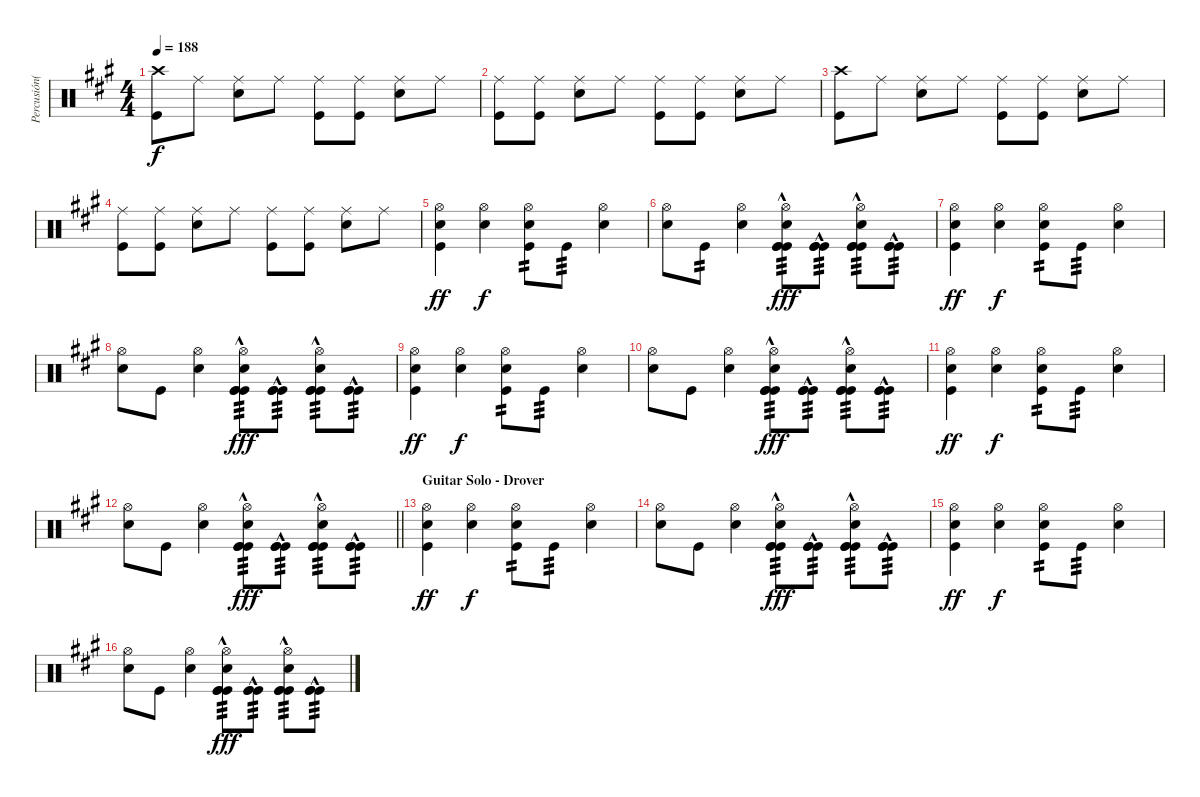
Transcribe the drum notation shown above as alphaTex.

\track ("Percusión(S.Drover)" "Percusión(") {instrument percussion}
\staff {score}
\articulation defaults
\ts (4 4)
\tempo 188
\clef neutral
\ks a
("Crash high (hit)" "Kick (hit)").8{dy f} "Ride (middle)".8 ("Ride (middle)" "Snare (hit) 2").8 "Ride (middle)".8 ("Ride (middle)" "Kick (hit)").8 ("Ride (middle)" "Kick (hit)").8 ("Ride (middle)" "Snare (hit) 2").8 "Ride (middle)".8 |
("Ride (middle)" "Kick (hit)").8 ("Ride (middle)" "Kick (hit)").8 ("Ride (middle)" "Snare (hit) 2").8 "Ride (middle)".8 ("Ride (middle)" "Kick (hit)").8 ("Ride (middle)" "Kick (hit)").8 ("Ride (middle)" "Snare (hit) 2").8 "Ride (middle)".8 |
("Crash high (hit)" "Kick (hit)").8 "Ride (middle)".8 ("Ride (middle)" "Snare (hit) 2").8 "Ride (middle)".8 ("Ride (middle)" "Kick (hit)").8 ("Ride (middle)" "Kick (hit)").8 ("Ride (middle)" "Snare (hit) 2").8 "Ride (middle)".8 |
("Ride (middle)" "Kick (hit)").8 ("Ride (middle)" "Kick (hit)").8 ("Ride (middle)" "Snare (hit) 2").8 "Ride (middle)".8 ("Ride (middle)" "Kick (hit)").8 ("Ride (middle)" "Kick (hit)").8 ("Ride (middle)" "Snare (hit) 2").8 "Ride (middle)".8 |
("Hi-Hat (open)" "Snare (hit) 2" "Kick (hit)").4{dy ff} ("Hi-Hat (open)" "Snare (hit) 2").4{dy f} ("Hi-Hat (open)" "Snare (hit) 2" "Kick (hit)").8{tp 2} "Kick (hit)".8{tp 3} ("Hi-Hat (open)" "Snare (hit) 2").4 |
("Hi-Hat (open)" "Snare (hit) 2").8 "Kick (hit)".8{tp 2} ("Hi-Hat (open)" "Snare (hit) 2").4 ("Hi-Hat (open)" "Snare (hit) 2" "Kick (hit)"{hac} "Kick (hit)" "Kick (hit)").8{tp 3 dy fff} ("Kick (hit)"{hac} "Kick (hit)" "Kick (hit)").8{tp 3} ("Hi-Hat (open)" "Snare (hit) 2" "Kick (hit)"{hac} "Kick (hit)" "Kick (hit)").8{tp 3} ("Kick (hit)"{hac} "Kick (hit)" "Kick (hit)").8{tp 3} |
("Hi-Hat (open)" "Snare (hit) 2" "Kick (hit)").4{dy ff} ("Hi-Hat (open)" "Snare (hit) 2").4{dy f} ("Hi-Hat (open)" "Snare (hit) 2" "Kick (hit)").8{tp 2} "Kick (hit)".8{tp 3} ("Hi-Hat (open)" "Snare (hit) 2").4 |
("Hi-Hat (open)" "Snare (hit) 2").8 "Kick (hit)".8 ("Hi-Hat (open)" "Snare (hit) 2").4 ("Hi-Hat (open)" "Snare (hit) 2" "Kick (hit)"{hac} "Kick (hit)" "Kick (hit)").8{tp 3 dy fff} ("Kick (hit)"{hac} "Kick (hit)" "Kick (hit)").8{tp 3} ("Hi-Hat (open)" "Snare (hit) 2" "Kick (hit)"{hac} "Kick (hit)" "Kick (hit)").8{tp 3} ("Kick (hit)"{hac} "Kick (hit)" "Kick (hit)").8{tp 3} |
("Hi-Hat (open)" "Snare (hit) 2" "Kick (hit)").4{dy ff} ("Hi-Hat (open)" "Snare (hit) 2").4{dy f} ("Hi-Hat (open)" "Snare (hit) 2" "Kick (hit)").8{tp 2} "Kick (hit)".8{tp 3} ("Hi-Hat (open)" "Snare (hit) 2").4 |
("Hi-Hat (open)" "Snare (hit) 2").8 "Kick (hit)".8 ("Hi-Hat (open)" "Snare (hit) 2").4 ("Hi-Hat (open)" "Snare (hit) 2" "Kick (hit)"{hac} "Kick (hit)" "Kick (hit)").8{tp 3 dy fff} ("Kick (hit)"{hac} "Kick (hit)" "Kick (hit)").8{tp 3} ("Hi-Hat (open)" "Snare (hit) 2" "Kick (hit)"{hac} "Kick (hit)" "Kick (hit)").8{tp 3} ("Kick (hit)"{hac} "Kick (hit)" "Kick (hit)").8{tp 3} |
("Hi-Hat (open)" "Snare (hit) 2" "Kick (hit)").4{dy ff} ("Hi-Hat (open)" "Snare (hit) 2").4{dy f} ("Hi-Hat (open)" "Snare (hit) 2" "Kick (hit)").8{tp 2} "Kick (hit)".8{tp 3} ("Hi-Hat (open)" "Snare (hit) 2").4 |
\barLineRight lightlight
("Hi-Hat (open)" "Snare (hit) 2").8 "Kick (hit)".8 ("Hi-Hat (open)" "Snare (hit) 2").4 ("Hi-Hat (open)" "Snare (hit) 2" "Kick (hit)"{hac} "Kick (hit)" "Kick (hit)").8{tp 3 dy fff} ("Kick (hit)"{hac} "Kick (hit)" "Kick (hit)").8{tp 3} ("Hi-Hat (open)" "Snare (hit) 2" "Kick (hit)"{hac} "Kick (hit)" "Kick (hit)").8{tp 3} ("Kick (hit)"{hac} "Kick (hit)" "Kick (hit)").8{tp 3} |
\section ("" "Guitar Solo - Drover")
("Hi-Hat (open)" "Snare (hit) 2" "Kick (hit)").4{dy ff} ("Hi-Hat (open)" "Snare (hit) 2").4{dy f} ("Hi-Hat (open)" "Snare (hit) 2" "Kick (hit)").8{tp 2} "Kick (hit)".8{tp 3} ("Hi-Hat (open)" "Snare (hit) 2").4 |
("Hi-Hat (open)" "Snare (hit) 2").8 "Kick (hit)".8 ("Hi-Hat (open)" "Snare (hit) 2").4 ("Hi-Hat (open)" "Snare (hit) 2" "Kick (hit)"{hac} "Kick (hit)" "Kick (hit)").8{tp 3 dy fff} ("Kick (hit)"{hac} "Kick (hit)" "Kick (hit)").8{tp 3} ("Hi-Hat (open)" "Snare (hit) 2" "Kick (hit)"{hac} "Kick (hit)" "Kick (hit)").8{tp 3} ("Kick (hit)"{hac} "Kick (hit)" "Kick (hit)").8{tp 3} |
("Hi-Hat (open)" "Snare (hit) 2" "Kick (hit)").4{dy ff} ("Hi-Hat (open)" "Snare (hit) 2").4{dy f} ("Hi-Hat (open)" "Snare (hit) 2" "Kick (hit)").8{tp 2} "Kick (hit)".8{tp 3} ("Hi-Hat (open)" "Snare (hit) 2").4 |
("Hi-Hat (open)" "Snare (hit) 2").8 "Kick (hit)".8 ("Hi-Hat (open)" "Snare (hit) 2").4 ("Hi-Hat (open)" "Snare (hit) 2" "Kick (hit)"{hac} "Kick (hit)" "Kick (hit)").8{tp 3 dy fff} ("Kick (hit)"{hac} "Kick (hit)" "Kick (hit)").8{tp 3} ("Hi-Hat (open)" "Snare (hit) 2" "Kick (hit)"{hac} "Kick (hit)" "Kick (hit)").8{tp 3} ("Kick (hit)"{hac} "Kick (hit)" "Kick (hit)").8{tp 3}
